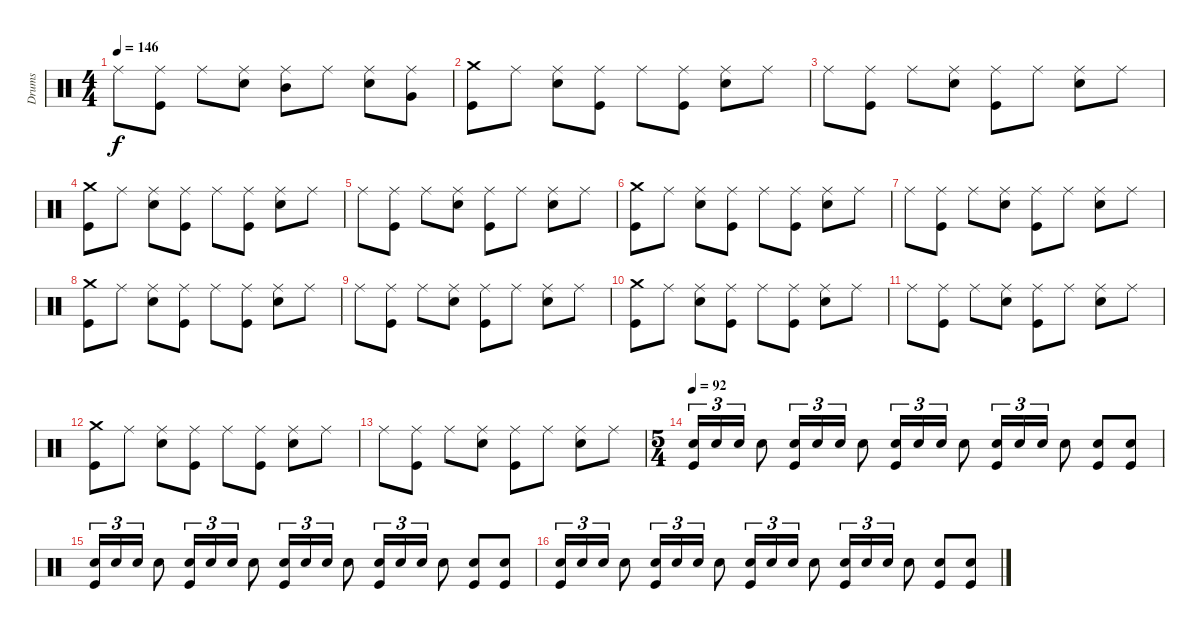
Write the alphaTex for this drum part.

\track ("Drums" "Drums") {instrument percussion}
\staff {score}
\articulation defaults
\ts (4 4)
\tempo 146
\clef neutral
\ks c "Ride (middle)".8{dy f}
("Ride (middle)" "Kick (hit)").8 "Ride (middle)".8 ("Ride (middle)" "Electric Snare (hit)").8 ("Ride (middle)" "Mid Tom (hit)").8 "Ride (middle)".8 ("Ride (middle)" "Electric Snare (hit)").8 ("Ride (middle)" "Very Low Tom (hit)").8 |
("Crash medium (hit)" "Kick (hit)").8 "Ride (middle)".8 ("Ride (middle)" "Electric Snare (hit)").8 ("Ride (middle)" "Kick (hit)").8 "Ride (middle)".8 ("Ride (middle)" "Kick (hit)").8 ("Ride (middle)" "Electric Snare (hit)").8 "Ride (middle)".8 |
"Ride (middle)".8 ("Ride (middle)" "Kick (hit)").8 "Ride (middle)".8 ("Ride (middle)" "Electric Snare (hit)").8 ("Ride (middle)" "Kick (hit)").8 "Ride (middle)".8 ("Ride (middle)" "Electric Snare (hit)").8 "Ride (middle)".8 |
("Crash medium (hit)" "Kick (hit)").8 "Ride (middle)".8 ("Ride (middle)" "Electric Snare (hit)").8 ("Ride (middle)" "Kick (hit)").8 "Ride (middle)".8 ("Ride (middle)" "Kick (hit)").8 ("Ride (middle)" "Electric Snare (hit)").8 "Ride (middle)".8 |
"Ride (middle)".8 ("Ride (middle)" "Kick (hit)").8 "Ride (middle)".8 ("Ride (middle)" "Electric Snare (hit)").8 ("Ride (middle)" "Kick (hit)").8 "Ride (middle)".8 ("Ride (middle)" "Electric Snare (hit)").8 "Ride (middle)".8 |
("Crash medium (hit)" "Kick (hit)").8 "Ride (middle)".8 ("Ride (middle)" "Electric Snare (hit)").8 ("Ride (middle)" "Kick (hit)").8 "Ride (middle)".8 ("Ride (middle)" "Kick (hit)").8 ("Ride (middle)" "Electric Snare (hit)").8 "Ride (middle)".8 |
"Ride (middle)".8 ("Ride (middle)" "Kick (hit)").8 "Ride (middle)".8 ("Ride (middle)" "Electric Snare (hit)").8 ("Ride (middle)" "Kick (hit)").8 "Ride (middle)".8 ("Ride (middle)" "Electric Snare (hit)").8 "Ride (middle)".8 |
("Crash medium (hit)" "Kick (hit)").8 "Ride (middle)".8 ("Ride (middle)" "Electric Snare (hit)").8 ("Ride (middle)" "Kick (hit)").8 "Ride (middle)".8 ("Ride (middle)" "Kick (hit)").8 ("Ride (middle)" "Electric Snare (hit)").8 "Ride (middle)".8 |
"Ride (middle)".8 ("Ride (middle)" "Kick (hit)").8 "Ride (middle)".8 ("Ride (middle)" "Electric Snare (hit)").8 ("Ride (middle)" "Kick (hit)").8 "Ride (middle)".8 ("Ride (middle)" "Electric Snare (hit)").8 "Ride (middle)".8 |
("Crash medium (hit)" "Kick (hit)").8 "Ride (middle)".8 ("Ride (middle)" "Electric Snare (hit)").8 ("Ride (middle)" "Kick (hit)").8 "Ride (middle)".8 ("Ride (middle)" "Kick (hit)").8 ("Ride (middle)" "Electric Snare (hit)").8 "Ride (middle)".8 |
"Ride (middle)".8 ("Ride (middle)" "Kick (hit)").8 "Ride (middle)".8 ("Ride (middle)" "Electric Snare (hit)").8 ("Ride (middle)" "Kick (hit)").8 "Ride (middle)".8 ("Ride (middle)" "Electric Snare (hit)").8 "Ride (middle)".8 |
("Crash medium (hit)" "Kick (hit)").8 "Ride (middle)".8 ("Ride (middle)" "Electric Snare (hit)").8 ("Ride (middle)" "Kick (hit)").8 "Ride (middle)".8 ("Ride (middle)" "Kick (hit)").8 ("Ride (middle)" "Electric Snare (hit)").8 "Ride (middle)".8 |
"Ride (middle)".8 ("Ride (middle)" "Kick (hit)").8 "Ride (middle)".8 ("Ride (middle)" "Electric Snare (hit)").8 ("Ride (middle)" "Kick (hit)").8 "Ride (middle)".8 ("Ride (middle)" "Electric Snare (hit)").8 "Ride (middle)".8 |
\ts (5 4)
\tempo 92
("Electric Snare (hit)" "Kick (hit)").16{tu (3 2)} "Electric Snare (hit)".16{tu (3 2)} "Electric Snare (hit)".16{tu (3 2)} "Electric Snare (hit)".8 ("Electric Snare (hit)" "Kick (hit)").16{tu (3 2)} "Electric Snare (hit)".16{tu (3 2)} "Electric Snare (hit)".16{tu (3 2)} "Electric Snare (hit)".8 ("Electric Snare (hit)" "Kick (hit)").16{tu (3 2)} "Electric Snare (hit)".16{tu (3 2)} "Electric Snare (hit)".16{tu (3 2)} "Electric Snare (hit)".8 ("Electric Snare (hit)" "Kick (hit)").16{tu (3 2)} "Electric Snare (hit)".16{tu (3 2)} "Electric Snare (hit)".16{tu (3 2)} "Electric Snare (hit)".8 ("Electric Snare (hit)" "Kick (hit)").8 ("Electric Snare (hit)" "Kick (hit)").8 |
("Electric Snare (hit)" "Kick (hit)").16{tu (3 2)} "Electric Snare (hit)".16{tu (3 2)} "Electric Snare (hit)".16{tu (3 2)} "Electric Snare (hit)".8 ("Electric Snare (hit)" "Kick (hit)").16{tu (3 2)} "Electric Snare (hit)".16{tu (3 2)} "Electric Snare (hit)".16{tu (3 2)} "Electric Snare (hit)".8 ("Electric Snare (hit)" "Kick (hit)").16{tu (3 2)} "Electric Snare (hit)".16{tu (3 2)} "Electric Snare (hit)".16{tu (3 2)} "Electric Snare (hit)".8 ("Electric Snare (hit)" "Kick (hit)").16{tu (3 2)} "Electric Snare (hit)".16{tu (3 2)} "Electric Snare (hit)".16{tu (3 2)} "Electric Snare (hit)".8 ("Electric Snare (hit)" "Kick (hit)").8 ("Electric Snare (hit)" "Kick (hit)").8 |
("Electric Snare (hit)" "Kick (hit)").16{tu (3 2)} "Electric Snare (hit)".16{tu (3 2)} "Electric Snare (hit)".16{tu (3 2)} "Electric Snare (hit)".8 ("Electric Snare (hit)" "Kick (hit)").16{tu (3 2)} "Electric Snare (hit)".16{tu (3 2)} "Electric Snare (hit)".16{tu (3 2)} "Electric Snare (hit)".8 ("Electric Snare (hit)" "Kick (hit)").16{tu (3 2)} "Electric Snare (hit)".16{tu (3 2)} "Electric Snare (hit)".16{tu (3 2)} "Electric Snare (hit)".8 ("Electric Snare (hit)" "Kick (hit)").16{tu (3 2)} "Electric Snare (hit)".16{tu (3 2)} "Electric Snare (hit)".16{tu (3 2)} "Electric Snare (hit)".8 ("Electric Snare (hit)" "Kick (hit)").8 ("Electric Snare (hit)" "Kick (hit)").8
